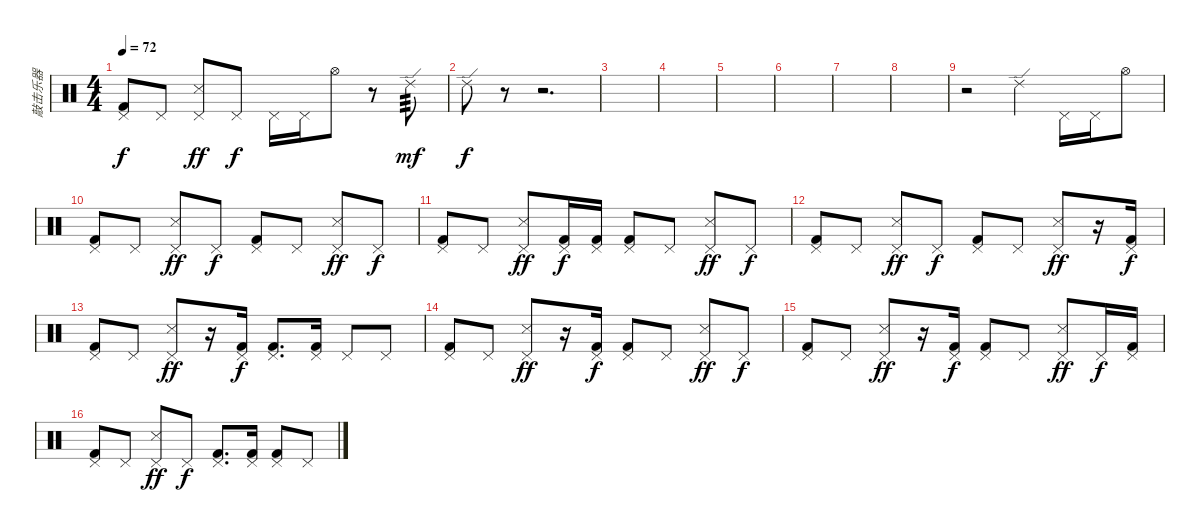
\track ("敲击乐器" "敲击乐器") {instrument percussion}
\staff {score}
\articulation defaults
\ts (4 4)
\tempo 72
\clef neutral
\ks c
("Pedal Hi-Hat (hit)" "Kick (hit) 2").8{dy f} "Pedal Hi-Hat (hit)".8 ("Pedal Hi-Hat (hit)" "Snare (side stick) 3").8{dy ff} "Pedal Hi-Hat (hit)".8{dy f} "Pedal Hi-Hat (hit)".16 "Pedal Hi-Hat (hit)".16 "Hi-Hat (open)".8 r.8 "Ride (edge) 2".8{tp 3 dy mf} |
"Ride (edge) 2".8{dy f} r.8 r.2{d} |
|
|
|
|
|
|
r.2 "Ride (edge) 2".4 "Pedal Hi-Hat (hit)".16 "Pedal Hi-Hat (hit)".16 "Hi-Hat (open)".8 |
("Pedal Hi-Hat (hit)" "Kick (hit) 2").8 "Pedal Hi-Hat (hit)".8 ("Pedal Hi-Hat (hit)" "Snare (side stick) 3").8{dy ff} "Pedal Hi-Hat (hit)".8{dy f} ("Pedal Hi-Hat (hit)" "Kick (hit) 2").8 "Pedal Hi-Hat (hit)".8 ("Pedal Hi-Hat (hit)" "Snare (side stick) 3").8{dy ff} "Pedal Hi-Hat (hit)".8{dy f} |
("Pedal Hi-Hat (hit)" "Kick (hit) 2").8 "Pedal Hi-Hat (hit)".8 ("Pedal Hi-Hat (hit)" "Snare (side stick) 3").8{dy ff} ("Pedal Hi-Hat (hit)" "Kick (hit) 2").16{dy f} ("Pedal Hi-Hat (hit)" "Kick (hit) 2").16 ("Pedal Hi-Hat (hit)" "Kick (hit) 2").8 "Pedal Hi-Hat (hit)".8 ("Pedal Hi-Hat (hit)" "Snare (side stick) 3").8{dy ff} "Pedal Hi-Hat (hit)".8{dy f} |
("Pedal Hi-Hat (hit)" "Kick (hit) 2").8 "Pedal Hi-Hat (hit)".8 ("Pedal Hi-Hat (hit)" "Snare (side stick) 3").8{dy ff} "Pedal Hi-Hat (hit)".8{dy f} ("Pedal Hi-Hat (hit)" "Kick (hit) 2").8 "Pedal Hi-Hat (hit)".8 ("Pedal Hi-Hat (hit)" "Snare (side stick) 3").8{dy ff} r.16 ("Pedal Hi-Hat (hit)" "Kick (hit) 2").16{dy f} |
("Pedal Hi-Hat (hit)" "Kick (hit) 2").8 "Pedal Hi-Hat (hit)".8 ("Pedal Hi-Hat (hit)" "Snare (side stick) 3").8{dy ff} r.16 ("Pedal Hi-Hat (hit)" "Kick (hit) 2").16{dy f} ("Pedal Hi-Hat (hit)" "Kick (hit) 2").8{d} ("Pedal Hi-Hat (hit)" "Kick (hit) 2").16 "Pedal Hi-Hat (hit)".8 "Pedal Hi-Hat (hit)".8 |
("Pedal Hi-Hat (hit)" "Kick (hit) 2").8 "Pedal Hi-Hat (hit)".8 ("Pedal Hi-Hat (hit)" "Snare (side stick) 3").8{dy ff} r.16 ("Pedal Hi-Hat (hit)" "Kick (hit) 2").16{dy f} ("Pedal Hi-Hat (hit)" "Kick (hit) 2").8 "Pedal Hi-Hat (hit)".8 ("Pedal Hi-Hat (hit)" "Snare (side stick) 3").8{dy ff} "Pedal Hi-Hat (hit)".8{dy f} |
("Pedal Hi-Hat (hit)" "Kick (hit) 2").8 "Pedal Hi-Hat (hit)".8 ("Pedal Hi-Hat (hit)" "Snare (side stick) 3").8{dy ff} r.16 ("Pedal Hi-Hat (hit)" "Kick (hit) 2").16{dy f} ("Pedal Hi-Hat (hit)" "Kick (hit) 2").8 "Pedal Hi-Hat (hit)".8 ("Pedal Hi-Hat (hit)" "Snare (side stick) 3").8{dy ff} "Pedal Hi-Hat (hit)".16{dy f} ("Pedal Hi-Hat (hit)" "Kick (hit) 2").16 |
("Pedal Hi-Hat (hit)" "Kick (hit) 2").8 "Pedal Hi-Hat (hit)".8 ("Pedal Hi-Hat (hit)" "Snare (side stick) 3").8{dy ff} "Pedal Hi-Hat (hit)".8{dy f} ("Pedal Hi-Hat (hit)" "Kick (hit) 2").8{d} ("Pedal Hi-Hat (hit)" "Kick (hit) 2").16 ("Pedal Hi-Hat (hit)" "Kick (hit) 2").8 "Pedal Hi-Hat (hit)".8
